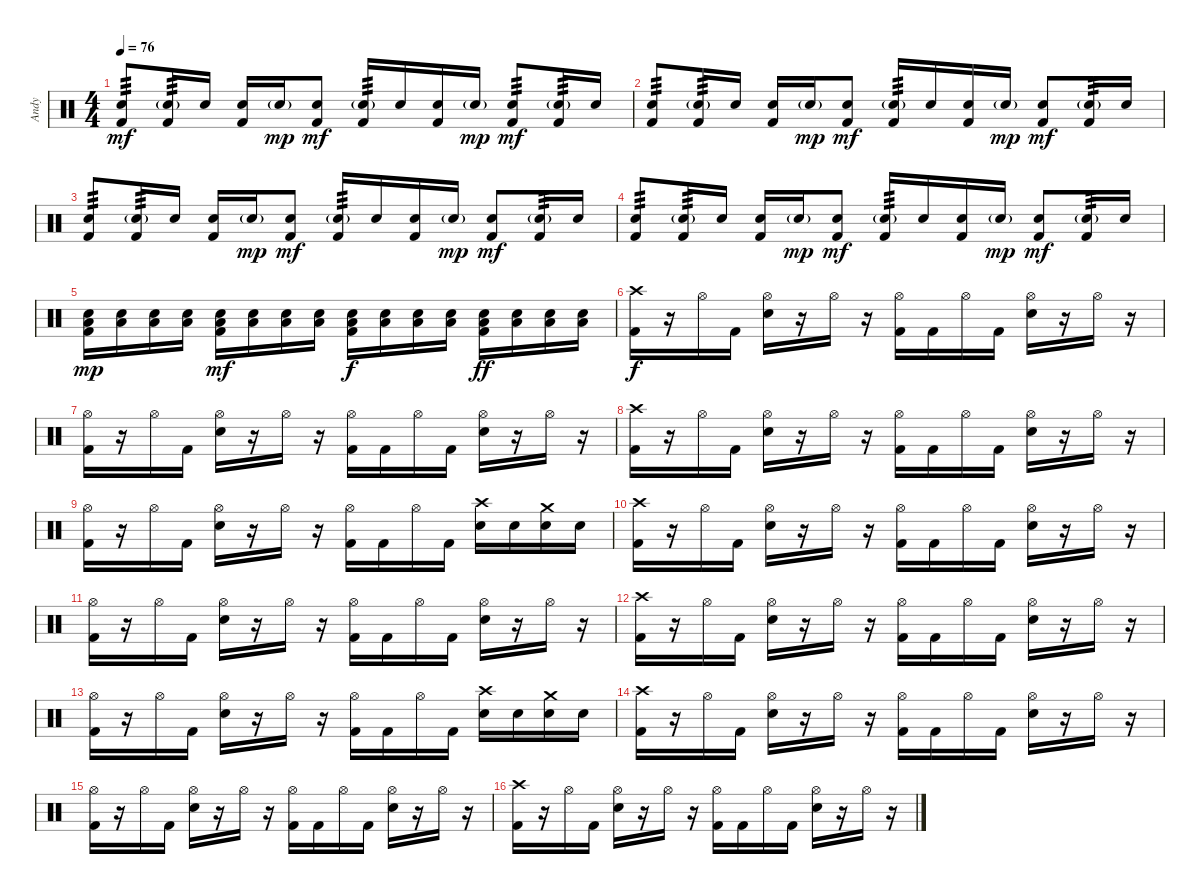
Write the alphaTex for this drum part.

\track ("Andy" "Andy") {instrument percussion}
\staff {score}
\articulation defaults
\ts (4 4)
\tempo 76
\clef neutral
\ks c
("Electric Snare (hit)" "Kick (hit) 2").8{tp 3 dy mf} ("Electric Snare (hit)"{g} "Kick (hit) 2").16{tp 3} "Electric Snare (hit)".16 ("Electric Snare (hit)" "Kick (hit) 2").16 "Electric Snare (hit)"{g}.16{dy mp} ("Electric Snare (hit)" "Kick (hit) 2").8{dy mf} ("Electric Snare (hit)"{g} "Kick (hit) 2").16{tp 3} "Electric Snare (hit)".16 ("Electric Snare (hit)" "Kick (hit) 2").16 "Electric Snare (hit)"{g}.16{dy mp} ("Electric Snare (hit)" "Kick (hit) 2").8{tp 3 dy mf} ("Electric Snare (hit)"{g} "Kick (hit) 2").16{tp 3} "Electric Snare (hit)".16 |
("Electric Snare (hit)" "Kick (hit) 2").8{tp 3} ("Electric Snare (hit)"{g} "Kick (hit) 2").16{tp 3} "Electric Snare (hit)".16 ("Electric Snare (hit)" "Kick (hit) 2").16 "Electric Snare (hit)"{g}.16{dy mp} ("Electric Snare (hit)" "Kick (hit) 2").8{dy mf} ("Electric Snare (hit)"{g} "Kick (hit) 2").16{tp 3} "Electric Snare (hit)".16 ("Electric Snare (hit)" "Kick (hit) 2").16 "Electric Snare (hit)"{g}.16{dy mp} ("Electric Snare (hit)" "Kick (hit) 2").8{dy mf} ("Electric Snare (hit)"{g} "Kick (hit) 2").16{tp 3} "Electric Snare (hit)".16 |
("Electric Snare (hit)" "Kick (hit) 2").8{tp 3} ("Electric Snare (hit)"{g} "Kick (hit) 2").16{tp 3} "Electric Snare (hit)".16 ("Electric Snare (hit)" "Kick (hit) 2").16 "Electric Snare (hit)"{g}.16{dy mp} ("Electric Snare (hit)" "Kick (hit) 2").8{dy mf} ("Electric Snare (hit)"{g} "Kick (hit) 2").16{tp 3} "Electric Snare (hit)".16 ("Electric Snare (hit)" "Kick (hit) 2").16 "Electric Snare (hit)"{g}.16{dy mp} ("Electric Snare (hit)" "Kick (hit) 2").8{dy mf} ("Electric Snare (hit)"{g} "Kick (hit) 2").16{tp 3} "Electric Snare (hit)".16 |
("Electric Snare (hit)" "Kick (hit) 2").8{tp 3} ("Electric Snare (hit)"{g} "Kick (hit) 2").16{tp 3} "Electric Snare (hit)".16 ("Electric Snare (hit)" "Kick (hit) 2").16 "Electric Snare (hit)"{g}.16{dy mp} ("Electric Snare (hit)" "Kick (hit) 2").8{dy mf} ("Electric Snare (hit)"{g} "Kick (hit) 2").16{tp 3} "Electric Snare (hit)".16 ("Electric Snare (hit)" "Kick (hit) 2").16 "Electric Snare (hit)"{g}.16{dy mp} ("Electric Snare (hit)" "Kick (hit) 2").8{dy mf} ("Electric Snare (hit)"{g} "Kick (hit) 2").16{tp 3} "Electric Snare (hit)".16 |
("Low Tom (hit)" "Electric Snare (hit)" "Kick (hit) 2").16{dy mp} ("Low Tom (hit)" "Electric Snare (hit)").16 ("Low Tom (hit)" "Electric Snare (hit)").16 ("Low Tom (hit)" "Electric Snare (hit)").16 ("Low Tom (hit)" "Electric Snare (hit)" "Kick (hit) 2").16{dy mf} ("Low Tom (hit)" "Electric Snare (hit)").16 ("Low Tom (hit)" "Electric Snare (hit)").16 ("Low Tom (hit)" "Electric Snare (hit)").16 ("Low Tom (hit)" "Electric Snare (hit)" "Kick (hit) 2").16{dy f} ("Low Tom (hit)" "Electric Snare (hit)").16 ("Low Tom (hit)" "Electric Snare (hit)").16 ("Low Tom (hit)" "Electric Snare (hit)").16 ("Low Tom (hit)" "Electric Snare (hit)" "Kick (hit) 2").16{dy ff} ("Low Tom (hit)" "Electric Snare (hit)").16 ("Low Tom (hit)" "Electric Snare (hit)").16 ("Low Tom (hit)" "Electric Snare (hit)").16 |
("Crash high (hit)" "Kick (hit) 2").16{dy f} r.16 "Hi-Hat (open)".16 "Kick (hit) 2".16 ("Hi-Hat (open)" "Electric Snare (hit)").16 r.16 "Hi-Hat (open)".16 r.16 ("Hi-Hat (open)" "Kick (hit) 2").16 "Kick (hit) 2".16 "Hi-Hat (open)".16 "Kick (hit) 2".16 ("Hi-Hat (open)" "Electric Snare (hit)").16 r.16 "Hi-Hat (open)".16 r.16 |
("Hi-Hat (open)" "Kick (hit) 2").16 r.16 "Hi-Hat (open)".16 "Kick (hit) 2".16 ("Hi-Hat (open)" "Electric Snare (hit)").16 r.16 "Hi-Hat (open)".16 r.16 ("Hi-Hat (open)" "Kick (hit) 2").16 "Kick (hit) 2".16 "Hi-Hat (open)".16 "Kick (hit) 2".16 ("Hi-Hat (open)" "Electric Snare (hit)").16 r.16 "Hi-Hat (open)".16 r.16 |
("Crash high (hit)" "Kick (hit) 2").16 r.16 "Hi-Hat (open)".16 "Kick (hit) 2".16 ("Hi-Hat (open)" "Electric Snare (hit)").16 r.16 "Hi-Hat (open)".16 r.16 ("Hi-Hat (open)" "Kick (hit) 2").16 "Kick (hit) 2".16 "Hi-Hat (open)".16 "Kick (hit) 2".16 ("Hi-Hat (open)" "Electric Snare (hit)").16 r.16 "Hi-Hat (open)".16 r.16 |
("Hi-Hat (open)" "Kick (hit) 2").16 r.16 "Hi-Hat (open)".16 "Kick (hit) 2".16 ("Hi-Hat (open)" "Electric Snare (hit)").16 r.16 "Hi-Hat (open)".16 r.16 ("Hi-Hat (open)" "Kick (hit) 2").16 "Kick (hit) 2".16 "Hi-Hat (open)".16 "Kick (hit) 2".16 ("Crash high (hit)" "Electric Snare (hit)").16 "Electric Snare (hit)".16 ("Crash medium (hit)" "Electric Snare (hit)").16 "Electric Snare (hit)".16 |
("Crash high (hit)" "Kick (hit) 2").16 r.16 "Hi-Hat (open)".16 "Kick (hit) 2".16 ("Hi-Hat (open)" "Electric Snare (hit)").16 r.16 "Hi-Hat (open)".16 r.16 ("Hi-Hat (open)" "Kick (hit) 2").16 "Kick (hit) 2".16 "Hi-Hat (open)".16 "Kick (hit) 2".16 ("Hi-Hat (open)" "Electric Snare (hit)").16 r.16 "Hi-Hat (open)".16 r.16 |
("Hi-Hat (open)" "Kick (hit) 2").16 r.16 "Hi-Hat (open)".16 "Kick (hit) 2".16 ("Hi-Hat (open)" "Electric Snare (hit)").16 r.16 "Hi-Hat (open)".16 r.16 ("Hi-Hat (open)" "Kick (hit) 2").16 "Kick (hit) 2".16 "Hi-Hat (open)".16 "Kick (hit) 2".16 ("Hi-Hat (open)" "Electric Snare (hit)").16 r.16 "Hi-Hat (open)".16 r.16 |
("Crash high (hit)" "Kick (hit) 2").16 r.16 "Hi-Hat (open)".16 "Kick (hit) 2".16 ("Hi-Hat (open)" "Electric Snare (hit)").16 r.16 "Hi-Hat (open)".16 r.16 ("Hi-Hat (open)" "Kick (hit) 2").16 "Kick (hit) 2".16 "Hi-Hat (open)".16 "Kick (hit) 2".16 ("Hi-Hat (open)" "Electric Snare (hit)").16 r.16 "Hi-Hat (open)".16 r.16 |
("Hi-Hat (open)" "Kick (hit) 2").16 r.16 "Hi-Hat (open)".16 "Kick (hit) 2".16 ("Hi-Hat (open)" "Electric Snare (hit)").16 r.16 "Hi-Hat (open)".16 r.16 ("Hi-Hat (open)" "Kick (hit) 2").16 "Kick (hit) 2".16 "Hi-Hat (open)".16 "Kick (hit) 2".16 ("Crash high (hit)" "Electric Snare (hit)").16 "Electric Snare (hit)".16 ("Crash medium (hit)" "Electric Snare (hit)").16 "Electric Snare (hit)".16 |
("Crash high (hit)" "Kick (hit) 2").16 r.16 "Hi-Hat (open)".16 "Kick (hit) 2".16 ("Hi-Hat (open)" "Electric Snare (hit)").16 r.16 "Hi-Hat (open)".16 r.16 ("Hi-Hat (open)" "Kick (hit) 2").16 "Kick (hit) 2".16 "Hi-Hat (open)".16 "Kick (hit) 2".16 ("Hi-Hat (open)" "Electric Snare (hit)").16 r.16 "Hi-Hat (open)".16 r.16 |
("Hi-Hat (open)" "Kick (hit) 2").16 r.16 "Hi-Hat (open)".16 "Kick (hit) 2".16 ("Hi-Hat (open)" "Electric Snare (hit)").16 r.16 "Hi-Hat (open)".16 r.16 ("Hi-Hat (open)" "Kick (hit) 2").16 "Kick (hit) 2".16 "Hi-Hat (open)".16 "Kick (hit) 2".16 ("Hi-Hat (open)" "Electric Snare (hit)").16 r.16 "Hi-Hat (open)".16 r.16 |
("Crash high (hit)" "Kick (hit) 2").16 r.16 "Hi-Hat (open)".16 "Kick (hit) 2".16 ("Hi-Hat (open)" "Electric Snare (hit)").16 r.16 "Hi-Hat (open)".16 r.16 ("Hi-Hat (open)" "Kick (hit) 2").16 "Kick (hit) 2".16 "Hi-Hat (open)".16 "Kick (hit) 2".16 ("Hi-Hat (open)" "Electric Snare (hit)").16 r.16 "Hi-Hat (open)".16 r.16
